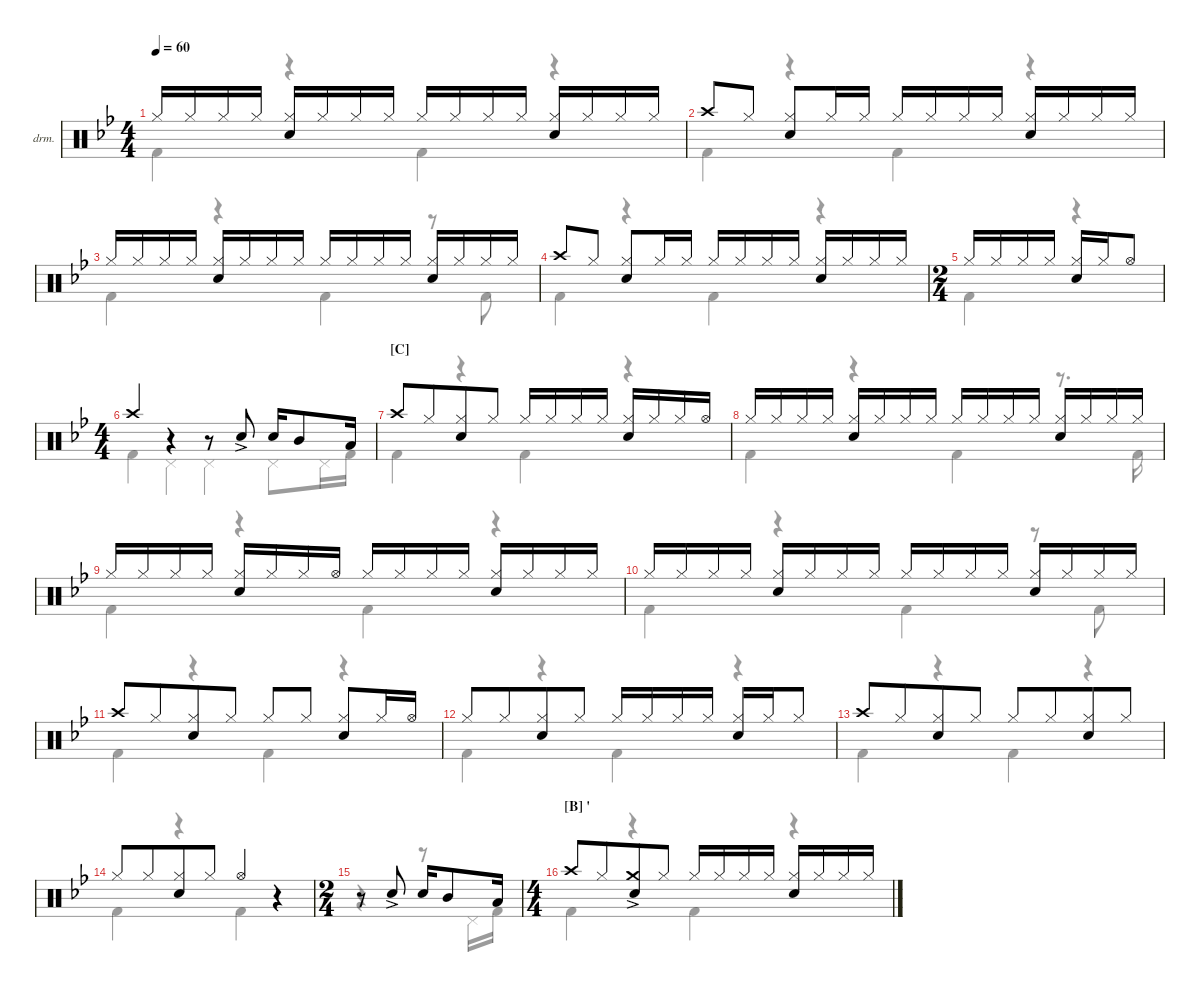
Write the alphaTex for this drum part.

\defaultSystemsLayout 4
\hideDynamics
\bracketExtendMode nobrackets
\firstSystemTrackNameOrientation horizontal
\otherSystemsTrackNameOrientation horizontal
\track ("Drumkit" "drm.") {instrument percussion}
\staff {score}
\articulation defaults
\voice
\ts (4 4)
\tempo 60
\clef neutral
\ks bb "Hi-Hat (closed)"{acc forcenatural}.16{dy mf beam Up} "Hi-Hat (closed)"{acc forcenatural}.16{dy mp beam Up} "Hi-Hat (closed)"{acc forcenatural}.16{dy mf beam Up} "Hi-Hat (closed)"{acc forcenatural}.16{dy mp beam Up}
("Hi-Hat (closed)"{acc forcenatural} "Snare (hit) 2"{acc forcenatural}).16{dy mf beam Up} "Hi-Hat (closed)"{acc forcenatural}.16{dy mp beam Up} "Hi-Hat (closed)"{acc forcenatural}.16{dy mf beam Up} "Hi-Hat (closed)"{acc forcenatural}.16{dy mp beam Up} "Hi-Hat (closed)"{acc forcenatural}.16{dy mf beam Up} "Hi-Hat (closed)"{acc forcenatural}.16{dy mp beam Up} "Hi-Hat (closed)"{acc forcenatural}.16{dy mf beam Up} "Hi-Hat (closed)"{acc forcenatural}.16{dy mp beam Up} ("Hi-Hat (closed)"{acc forcenatural} "Snare (hit) 2"{acc forcenatural}).16{dy mf beam Up} "Hi-Hat (closed)"{acc forcenatural}.16{dy mp beam Up} "Hi-Hat (closed)"{acc forcenatural}.16{dy mf beam Up} "Hi-Hat (closed)"{acc forcenatural}.16{dy mp beam Up} |
"Crash high (hit)"{acc forcenatural}.8{beam Up} "Hi-Hat (closed)"{acc forcenatural}.8{dy mf beam Up} ("Hi-Hat (closed)"{acc forcenatural} "Snare (hit) 2"{acc forcenatural}).8{beam Up} "Hi-Hat (closed)"{acc forcenatural}.16{beam Up} "Hi-Hat (closed)"{acc forcenatural}.16{dy mp beam Up} "Hi-Hat (closed)"{acc forcenatural}.16{dy mf beam Up} "Hi-Hat (closed)"{acc forcenatural}.16{dy mp beam Up} "Hi-Hat (closed)"{acc forcenatural}.16{dy mf beam Up} "Hi-Hat (closed)"{acc forcenatural}.16{dy mp beam Up} ("Hi-Hat (closed)"{acc forcenatural} "Snare (hit) 2"{acc forcenatural}).16{dy mf beam Up} "Hi-Hat (closed)"{acc forcenatural}.16{dy mp beam Up} "Hi-Hat (closed)"{acc forcenatural}.16{dy mf beam Up} "Hi-Hat (closed)"{acc forcenatural}.16{dy mp beam Up} |
"Hi-Hat (closed)"{acc forcenatural}.16{dy mf beam Up} "Hi-Hat (closed)"{acc forcenatural}.16{dy mp beam Up} "Hi-Hat (closed)"{acc forcenatural}.16{dy mf beam Up} "Hi-Hat (closed)"{acc forcenatural}.16{dy mp beam Up} ("Hi-Hat (closed)"{acc forcenatural} "Snare (hit) 2"{acc forcenatural}).16{dy mf beam Up} "Hi-Hat (closed)"{acc forcenatural}.16{dy mp beam Up} "Hi-Hat (closed)"{acc forcenatural}.16{dy mf beam Up} "Hi-Hat (closed)"{acc forcenatural}.16{dy mp beam Up} "Hi-Hat (closed)"{acc forcenatural}.16{dy mf beam Up} "Hi-Hat (closed)"{acc forcenatural}.16{dy mp beam Up} "Hi-Hat (closed)"{acc forcenatural}.16{dy mf beam Up} "Hi-Hat (closed)"{acc forcenatural}.16{dy mp beam Up} ("Hi-Hat (closed)"{acc forcenatural} "Snare (hit) 2"{acc forcenatural}).16{dy mf beam Up} "Hi-Hat (closed)"{acc forcenatural}.16{dy mp beam Up} "Hi-Hat (closed)"{acc forcenatural}.16{dy mf beam Up} "Hi-Hat (closed)"{acc forcenatural}.16{dy mp beam Up} |
"Crash high (hit)"{acc forcenatural}.8{beam Up} "Hi-Hat (closed)"{acc forcenatural}.8{dy mf beam Up} ("Hi-Hat (closed)"{acc forcenatural} "Snare (hit) 2"{acc forcenatural}).8{beam Up} "Hi-Hat (closed)"{acc forcenatural}.16{beam Up} "Hi-Hat (closed)"{acc forcenatural}.16{dy mp beam Up} "Hi-Hat (closed)"{acc forcenatural}.16{dy mf beam Up} "Hi-Hat (closed)"{acc forcenatural}.16{dy mp beam Up} "Hi-Hat (closed)"{acc forcenatural}.16{dy mf beam Up} "Hi-Hat (closed)"{acc forcenatural}.16{dy mp beam Up} ("Hi-Hat (closed)"{acc forcenatural} "Snare (hit) 2"{acc forcenatural}).16{dy mf beam Up} "Hi-Hat (closed)"{acc forcenatural}.16{dy mp beam Up} "Hi-Hat (closed)"{acc forcenatural}.16{dy mf beam Up} "Hi-Hat (closed)"{acc forcenatural}.16{dy mp beam Up} |
\ts (2 4)
"Hi-Hat (closed)"{acc forcenatural}.16{dy mf beam Up} "Hi-Hat (closed)"{acc forcenatural}.16{dy mp beam Up} "Hi-Hat (closed)"{acc forcenatural}.16{dy mf beam Up} "Hi-Hat (closed)"{acc forcenatural}.16{dy mp beam Up} ("Hi-Hat (closed)"{acc forcenatural} "Snare (hit) 2"{acc forcenatural}).16{dy mf beam Up} "Hi-Hat (closed)"{acc forcenatural}.16{dy mp beam Up} "Hi-Hat (open)"{acc forcenatural}.8{dy mf beam Up} |
\ts (4 4)
"Crash high (hit)"{acc forcenatural}.4{beam Up} r.4{beam Up} r.8{beam Up} "Snare (hit) 2"{ac acc forcenatural}.8{beam Up} "Snare (hit) 2"{acc forcenatural}.16{beam Up} "Mid Tom (hit)"{acc forcenatural}.8{beam Up} "Low Tom (hit)"{acc forcenatural}.16{dy ff beam Up} |
\section ("C" "")
"Crash high (hit)"{acc forcenatural}.8{dy mf beam Up} "Hi-Hat (closed)"{acc forcenatural}.8{beam Up beam merge} ("Snare (hit) 2"{acc forcenatural} "Hi-Hat (closed)"{acc forcenatural}).8{beam Up} "Hi-Hat (closed)"{acc forcenatural}.8{beam Up} "Hi-Hat (closed)"{acc forcenatural}.16{beam Up} "Hi-Hat (closed)"{acc forcenatural}.16{dy mp beam Up} "Hi-Hat (closed)"{acc forcenatural}.16{dy mf beam Up} "Hi-Hat (closed)"{acc forcenatural}.16{dy mp beam Up} ("Hi-Hat (closed)"{acc forcenatural} "Snare (hit) 2"{acc forcenatural}).16{dy mf beam Up} "Hi-Hat (closed)"{acc forcenatural}.16{dy mp beam Up} "Hi-Hat (closed)"{acc forcenatural}.16{dy mf beam Up} "Hi-Hat (open)"{acc forcenatural}.16{beam Up} |
"Hi-Hat (closed)"{acc forcenatural}.16{beam Up} "Hi-Hat (closed)"{acc forcenatural}.16{dy mp beam Up} "Hi-Hat (closed)"{acc forcenatural}.16{dy mf beam Up} "Hi-Hat (closed)"{acc forcenatural}.16{dy mp beam Up} ("Hi-Hat (closed)"{acc forcenatural} "Snare (hit) 2"{acc forcenatural}).16{dy mf beam Up} "Hi-Hat (closed)"{acc forcenatural}.16{dy mp beam Up} "Hi-Hat (closed)"{acc forcenatural}.16{dy mf beam Up} "Hi-Hat (closed)"{acc forcenatural}.16{dy mp beam Up} "Hi-Hat (closed)"{acc forcenatural}.16{dy mf beam Up} "Hi-Hat (closed)"{acc forcenatural}.16{dy mp beam Up} "Hi-Hat (closed)"{acc forcenatural}.16{dy mf beam Up} "Hi-Hat (closed)"{acc forcenatural}.16{dy mp beam Up} ("Hi-Hat (closed)"{acc forcenatural} "Snare (hit) 2"{acc forcenatural}).16{dy mf beam Up} "Hi-Hat (closed)"{acc forcenatural}.16{dy mp beam Up} "Hi-Hat (closed)"{acc forcenatural}.16{dy mf beam Up} "Hi-Hat (closed)"{acc forcenatural}.16{dy mp beam Up} |
"Hi-Hat (closed)"{acc forcenatural}.16{dy mf beam Up} "Hi-Hat (closed)"{acc forcenatural}.16{dy mp beam Up} "Hi-Hat (closed)"{acc forcenatural}.16{dy mf beam Up} "Hi-Hat (closed)"{acc forcenatural}.16{dy mp beam Up} ("Hi-Hat (closed)"{acc forcenatural} "Snare (hit) 2"{acc forcenatural}).16{dy mf beam Up} "Hi-Hat (closed)"{acc forcenatural}.16{dy mp beam Up} "Hi-Hat (closed)"{acc forcenatural}.16{dy mf beam Up} "Hi-Hat (open)"{acc forcenatural}.16{beam Up} "Hi-Hat (closed)"{acc forcenatural}.16{beam Up} "Hi-Hat (closed)"{acc forcenatural}.16{dy mp beam Up} "Hi-Hat (closed)"{acc forcenatural}.16{dy mf beam Up} "Hi-Hat (closed)"{acc forcenatural}.16{dy mp beam Up} ("Hi-Hat (closed)"{acc forcenatural} "Snare (hit) 2"{acc forcenatural}).16{dy mf beam Up} "Hi-Hat (closed)"{acc forcenatural}.16{dy mp beam Up} "Hi-Hat (closed)"{acc forcenatural}.16{dy mf beam Up} "Hi-Hat (closed)"{acc forcenatural}.16{dy mp beam Up} |
"Hi-Hat (closed)"{acc forcenatural}.16{dy mf beam Up} "Hi-Hat (closed)"{acc forcenatural}.16{dy mp beam Up} "Hi-Hat (closed)"{acc forcenatural}.16{dy mf beam Up} "Hi-Hat (closed)"{acc forcenatural}.16{dy mp beam Up} ("Hi-Hat (closed)"{acc forcenatural} "Snare (hit) 2"{acc forcenatural}).16{dy mf beam Up} "Hi-Hat (closed)"{acc forcenatural}.16{dy mp beam Up} "Hi-Hat (closed)"{acc forcenatural}.16{dy mf beam Up} "Hi-Hat (closed)"{acc forcenatural}.16{dy mp beam Up} "Hi-Hat (closed)"{acc forcenatural}.16{dy mf beam Up} "Hi-Hat (closed)"{acc forcenatural}.16{dy mp beam Up} "Hi-Hat (closed)"{acc forcenatural}.16{dy mf beam Up} "Hi-Hat (closed)"{acc forcenatural}.16{dy mp beam Up} ("Hi-Hat (closed)"{acc forcenatural} "Snare (hit) 2"{acc forcenatural}).16{dy mf beam Up} "Hi-Hat (closed)"{acc forcenatural}.16{dy mp beam Up} "Hi-Hat (closed)"{acc forcenatural}.16{dy mf beam Up} "Hi-Hat (closed)"{acc forcenatural}.16{dy mp beam Up} |
"Crash high (hit)"{acc forcenatural}.8{dy mf beam Up} "Hi-Hat (closed)"{acc forcenatural}.8{beam Up beam merge} ("Hi-Hat (closed)"{acc forcenatural} "Snare (hit) 2"{acc forcenatural}).8{beam Up} "Hi-Hat (closed)"{acc forcenatural}.8{beam Up} "Hi-Hat (closed)"{acc forcenatural}.8{beam Up} "Hi-Hat (closed)"{acc forcenatural}.8{beam Up} ("Hi-Hat (closed)"{acc forcenatural} "Snare (hit) 2"{acc forcenatural}).8{beam Up} "Hi-Hat (closed)"{acc forcenatural}.16{beam Up} "Hi-Hat (open)"{acc forcenatural}.16{beam Up} |
"Hi-Hat (closed)"{acc forcenatural}.8{beam Up} "Hi-Hat (closed)"{acc forcenatural}.8{beam Up beam merge} ("Hi-Hat (closed)"{acc forcenatural} "Snare (hit) 2"{acc forcenatural}).8{beam Up} "Hi-Hat (closed)"{acc forcenatural}.8{beam Up} "Hi-Hat (closed)"{acc forcenatural}.16{beam Up} "Hi-Hat (closed)"{acc forcenatural}.16{dy mp beam Up} "Hi-Hat (closed)"{acc forcenatural}.16{dy mf beam Up} "Hi-Hat (closed)"{acc forcenatural}.16{dy mp beam Up} ("Hi-Hat (closed)"{acc forcenatural} "Snare (hit) 2"{acc forcenatural}).16{dy mf beam Up} "Hi-Hat (closed)"{acc forcenatural}.16{dy mp beam Up} "Hi-Hat (closed)"{acc forcenatural}.8{dy mf beam Up} |
"Crash high (hit)"{acc forcenatural}.8{beam Up} "Hi-Hat (closed)"{acc forcenatural}.8{beam Up beam merge} ("Hi-Hat (closed)"{acc forcenatural} "Snare (hit) 2"{acc forcenatural}).8{beam Up} "Hi-Hat (closed)"{acc forcenatural}.8{beam Up} "Hi-Hat (closed)"{acc forcenatural}.8{beam Up} "Hi-Hat (closed)"{acc forcenatural}.8{beam Up beam merge} ("Hi-Hat (closed)"{acc forcenatural} "Snare (hit) 2"{acc forcenatural}).8{beam Up} "Hi-Hat (closed)"{acc forcenatural}.8{beam Up} |
"Hi-Hat (closed)"{acc forcenatural}.8{beam Up} "Hi-Hat (closed)"{acc forcenatural}.8{beam Up beam merge} ("Hi-Hat (closed)"{acc forcenatural} "Snare (hit) 2"{acc forcenatural}).8{beam Up} "Hi-Hat (closed)"{acc forcenatural}.8{beam Up} "Hi-Hat (open)"{acc forcenatural}.4{beam Up} r.4{beam Up} |
\ts (2 4)
r.8{beam Up} "Snare (hit) 2"{ac acc forcenatural}.8{beam Up} "Snare (hit) 2"{acc forcenatural}.16{beam Up} "Mid Tom (hit)"{acc forcenatural}.8{beam Up} "Low Tom (hit)"{acc forcenatural}.16{dy ff beam Up} |
\ts (4 4)
\section ("B" "'")
"Crash high (hit)"{acc forcenatural}.8{dy mf beam Up} "Hi-Hat (closed)"{acc forcenatural}.8{beam Up beam merge} ("Crash medium (hit)"{ac acc forcenatural} "Snare (hit) 2"{acc forcenatural}).8{beam Up} "Hi-Hat (closed)"{acc forcenatural}.8{beam Up} "Hi-Hat (closed)"{acc forcenatural}.16{beam Up} "Hi-Hat (closed)"{acc forcenatural}.16{dy mp beam Up} "Hi-Hat (closed)"{acc forcenatural}.16{dy mf beam Up} "Hi-Hat (closed)"{acc forcenatural}.16{dy mp beam Up} ("Hi-Hat (closed)"{acc forcenatural} "Snare (hit) 2"{acc forcenatural}).16{dy mf beam Up} "Hi-Hat (closed)"{acc forcenatural}.16{dy mp beam Up} "Hi-Hat (closed)"{acc forcenatural}.16{dy mf beam Up} "Hi-Hat (closed)"{acc forcenatural}.16{dy mp beam Up}
\voice
\clef neutral
\ottava regular
\simile none
\ks bb "Kick (hit) 2"{acc forcenatural}.4{dy mf beam Down}
r.4{beam Down} "Kick (hit) 2"{acc forcenatural}.4{beam Down} r.4{beam Down} |
"Kick (hit) 2"{acc forcenatural}.4{beam Down} r.4{beam Down} "Kick (hit) 2"{acc forcenatural}.4{beam Down} r.4{beam Down} |
"Kick (hit) 2"{acc forcenatural}.4{beam Down} r.4{beam Down} "Kick (hit) 2"{acc forcenatural}.4{beam Down} r.8{beam Down} "Kick (hit) 2"{acc forcenatural}.8{beam Down} |
"Kick (hit) 2"{acc forcenatural}.4{beam Down} r.4{beam Down} "Kick (hit) 2"{acc forcenatural}.4{beam Down} r.4{beam Down} |
"Kick (hit) 2"{acc forcenatural}.4{beam Down} r.4{beam Down} |
"Kick (hit) 2"{acc forcenatural}.4{beam Down} "Pedal Hi-Hat (hit)"{acc forcenatural}.4{beam Down} "Pedal Hi-Hat (hit)"{acc forcenatural}.4{beam Down} "Pedal Hi-Hat (hit)"{acc forcenatural}.8{beam Down} "Pedal Hi-Hat (hit)"{acc forcenatural}.16{beam Down} "Kick (hit) 2"{acc forcenatural}.16{beam Down} |
"Kick (hit) 2"{acc forcenatural}.4{beam Down} r.4{beam Down} "Kick (hit) 2"{acc forcenatural}.4{beam Down} r.4{beam Down} |
"Kick (hit) 2"{acc forcenatural}.4{beam Down} r.4{beam Down} "Kick (hit) 2"{acc forcenatural}.4{beam Down} r.8{d beam Down} "Kick (hit) 2"{acc forcenatural}.16{beam Down} |
"Kick (hit) 2"{acc forcenatural}.4{beam Down} r.4{beam Down} "Kick (hit) 2"{acc forcenatural}.4{beam Down} r.4{beam Down} |
"Kick (hit) 2"{acc forcenatural}.4{beam Down} r.4{beam Down} "Kick (hit) 2"{acc forcenatural}.4{beam Down} r.8{beam Down} "Kick (hit) 2"{acc forcenatural}.8{beam Down} |
"Kick (hit) 2"{acc forcenatural}.4{beam Down} r.4{beam Down} "Kick (hit) 2"{acc forcenatural}.4{beam Down} r.4{beam Down} |
"Kick (hit) 2"{acc forcenatural}.4{beam Down} r.4{beam Down} "Kick (hit) 2"{acc forcenatural}.4{beam Down} r.4{beam Down} |
"Kick (hit) 2"{acc forcenatural}.4{beam Down} r.4{beam Down} "Kick (hit) 2"{acc forcenatural}.4{beam Down} r.4{beam Down} |
"Kick (hit) 2"{acc forcenatural}.4{beam Down} r.4{beam Down} "Kick (hit) 2"{acc forcenatural}.4{beam Down} r.4{beam Down} |
r.4{beam Down} r.8{beam Down} "Pedal Hi-Hat (hit)"{acc forcenatural}.16{beam Down} "Kick (hit) 2"{acc forcenatural}.16{beam Down} |
"Kick (hit) 2"{acc forcenatural}.4{beam Down} r.4{beam Down} "Kick (hit) 2"{acc forcenatural}.4{beam Down} r.4{beam Down}
